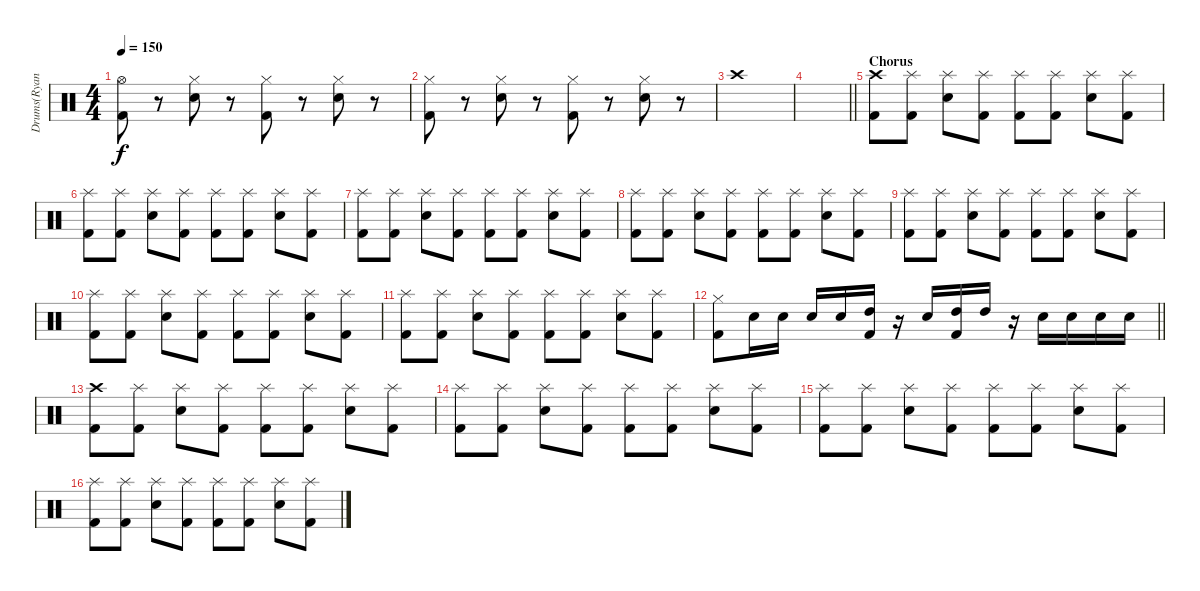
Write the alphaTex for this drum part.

\track ("Drums(Ryan)" "Drums(Ryan") {instrument percussion}
\staff {score}
\articulation defaults
\ts (4 4)
\tempo 150
\clef neutral
\ks c
("Hi-Hat (open)" "Kick (hit) 2").8{dy f} r.8 ("Hi-Hat (closed)" "Electric Snare (hit)").8 r.8 ("Hi-Hat (closed)" "Kick (hit) 2").8 r.8 ("Hi-Hat (closed)" "Electric Snare (hit)").8 r.8 |
("Hi-Hat (closed)" "Kick (hit) 2").8 r.8 ("Hi-Hat (closed)" "Electric Snare (hit)").8 r.8 ("Hi-Hat (closed)" "Kick (hit) 2").8 r.8 ("Hi-Hat (closed)" "Electric Snare (hit)").8 r.8 |
"Crash high (hit)".1 |
\barLineRight lightlight
|
\section ("" "Chorus")
("Crash high (hit)" "Kick (hit) 2").8 ("Splash (hit)" "Kick (hit) 2").8 ("Splash (hit)" "Electric Snare (hit)").8 ("Splash (hit)" "Kick (hit) 2").8 ("Splash (hit)" "Kick (hit) 2").8 ("Splash (hit)" "Kick (hit) 2").8 ("Splash (hit)" "Electric Snare (hit)").8 ("Splash (hit)" "Kick (hit) 2").8 |
("Splash (hit)" "Kick (hit) 2").8 ("Splash (hit)" "Kick (hit) 2").8 ("Splash (hit)" "Electric Snare (hit)").8 ("Splash (hit)" "Kick (hit) 2").8 ("Splash (hit)" "Kick (hit) 2").8 ("Splash (hit)" "Kick (hit) 2").8 ("Splash (hit)" "Electric Snare (hit)").8 ("Splash (hit)" "Kick (hit) 2").8 |
("Splash (hit)" "Kick (hit) 2").8 ("Splash (hit)" "Kick (hit) 2").8 ("Splash (hit)" "Electric Snare (hit)").8 ("Splash (hit)" "Kick (hit) 2").8 ("Splash (hit)" "Kick (hit) 2").8 ("Splash (hit)" "Kick (hit) 2").8 ("Splash (hit)" "Electric Snare (hit)").8 ("Splash (hit)" "Kick (hit) 2").8 |
("Splash (hit)" "Kick (hit) 2").8 ("Splash (hit)" "Kick (hit) 2").8 ("Splash (hit)" "Electric Snare (hit)").8 ("Splash (hit)" "Kick (hit) 2").8 ("Splash (hit)" "Kick (hit) 2").8 ("Splash (hit)" "Kick (hit) 2").8 ("Splash (hit)" "Electric Snare (hit)").8 ("Splash (hit)" "Kick (hit) 2").8 |
("Splash (hit)" "Kick (hit) 2").8 ("Splash (hit)" "Kick (hit) 2").8 ("Splash (hit)" "Electric Snare (hit)").8 ("Splash (hit)" "Kick (hit) 2").8 ("Splash (hit)" "Kick (hit) 2").8 ("Splash (hit)" "Kick (hit) 2").8 ("Splash (hit)" "Electric Snare (hit)").8 ("Splash (hit)" "Kick (hit) 2").8 |
("Splash (hit)" "Kick (hit) 2").8 ("Splash (hit)" "Kick (hit) 2").8 ("Splash (hit)" "Electric Snare (hit)").8 ("Splash (hit)" "Kick (hit) 2").8 ("Splash (hit)" "Kick (hit) 2").8 ("Splash (hit)" "Kick (hit) 2").8 ("Splash (hit)" "Electric Snare (hit)").8 ("Splash (hit)" "Kick (hit) 2").8 |
("Splash (hit)" "Kick (hit) 2").8 ("Splash (hit)" "Kick (hit) 2").8 ("Splash (hit)" "Electric Snare (hit)").8 ("Splash (hit)" "Kick (hit) 2").8 ("Splash (hit)" "Kick (hit) 2").8 ("Splash (hit)" "Kick (hit) 2").8 ("Splash (hit)" "Electric Snare (hit)").8 ("Splash (hit)" "Kick (hit) 2").8 |
\barLineRight lightlight
("Hi-Hat (closed)" "Kick (hit) 2").8 "Electric Snare (hit)".16 "Electric Snare (hit)".16 "Electric Snare (hit)".16 "Electric Snare (hit)".16 ("High Tom (hit)" "Kick (hit) 2").16 r.16 "Electric Snare (hit)".16 ("High Tom (hit)" "Kick (hit) 2").16 "High Tom (hit)".16 r.16 "Electric Snare (hit)".16 "Electric Snare (hit)".16 "Electric Snare (hit)".16 "Electric Snare (hit)".16 |
("Crash high (hit)" "Kick (hit) 2").8 ("Splash (hit)" "Kick (hit) 2").8 ("Splash (hit)" "Electric Snare (hit)").8 ("Splash (hit)" "Kick (hit) 2").8 ("Splash (hit)" "Kick (hit) 2").8 ("Splash (hit)" "Kick (hit) 2").8 ("Splash (hit)" "Electric Snare (hit)").8 ("Splash (hit)" "Kick (hit) 2").8 |
("Splash (hit)" "Kick (hit) 2").8 ("Splash (hit)" "Kick (hit) 2").8 ("Splash (hit)" "Electric Snare (hit)").8 ("Splash (hit)" "Kick (hit) 2").8 ("Splash (hit)" "Kick (hit) 2").8 ("Splash (hit)" "Kick (hit) 2").8 ("Splash (hit)" "Electric Snare (hit)").8 ("Splash (hit)" "Kick (hit) 2").8 |
("Splash (hit)" "Kick (hit) 2").8 ("Splash (hit)" "Kick (hit) 2").8 ("Splash (hit)" "Electric Snare (hit)").8 ("Splash (hit)" "Kick (hit) 2").8 ("Splash (hit)" "Kick (hit) 2").8 ("Splash (hit)" "Kick (hit) 2").8 ("Splash (hit)" "Electric Snare (hit)").8 ("Splash (hit)" "Kick (hit) 2").8 |
("Splash (hit)" "Kick (hit) 2").8 ("Splash (hit)" "Kick (hit) 2").8 ("Splash (hit)" "Electric Snare (hit)").8 ("Splash (hit)" "Kick (hit) 2").8 ("Splash (hit)" "Kick (hit) 2").8 ("Splash (hit)" "Kick (hit) 2").8 ("Splash (hit)" "Electric Snare (hit)").8 ("Splash (hit)" "Kick (hit) 2").8
